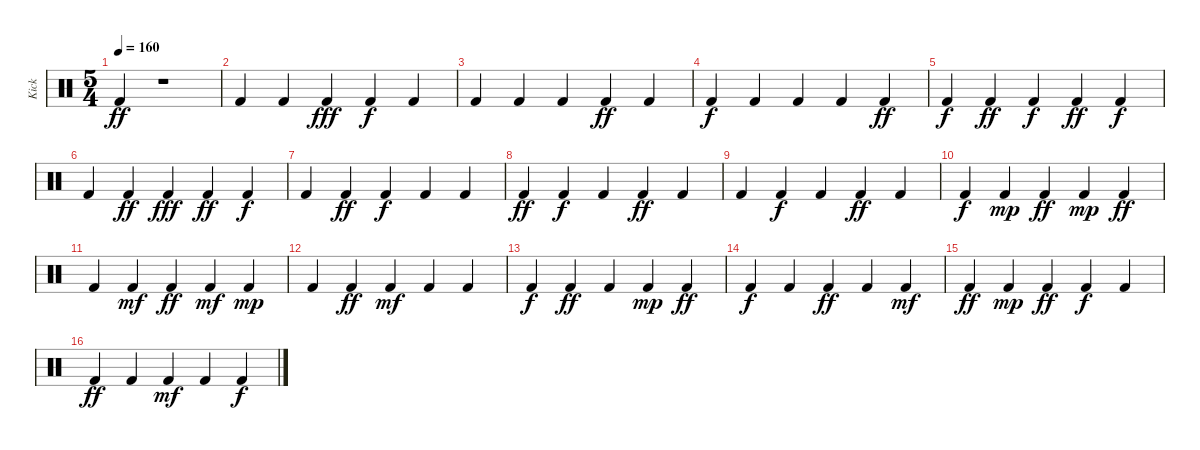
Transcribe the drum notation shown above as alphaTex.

\track ("Kick" "Kick") {instrument percussion}
\staff {score}
\articulation defaults
\ts (5 4)
\tempo 160
\clef neutral
\ks c "Kick (hit) 2".4{dy ff}
r.1 |
"Kick (hit) 2".4 "Kick (hit) 2".4 "Kick (hit) 2".4{dy fff} "Kick (hit) 2".4{dy f} "Kick (hit) 2".4 |
"Kick (hit) 2".4 "Kick (hit) 2".4 "Kick (hit) 2".4 "Kick (hit) 2".4{dy ff} "Kick (hit) 2".4 |
"Kick (hit) 2".4{dy f} "Kick (hit) 2".4 "Kick (hit) 2".4 "Kick (hit) 2".4 "Kick (hit) 2".4{dy ff} |
"Kick (hit) 2".4{dy f} "Kick (hit) 2".4{dy ff} "Kick (hit) 2".4{dy f} "Kick (hit) 2".4{dy ff} "Kick (hit) 2".4{dy f} |
"Kick (hit) 2".4 "Kick (hit) 2".4{dy ff} "Kick (hit) 2".4{dy fff} "Kick (hit) 2".4{dy ff} "Kick (hit) 2".4{dy f} |
"Kick (hit) 2".4 "Kick (hit) 2".4{dy ff} "Kick (hit) 2".4{dy f} "Kick (hit) 2".4 "Kick (hit) 2".4 |
"Kick (hit) 2".4{dy ff} "Kick (hit) 2".4{dy f} "Kick (hit) 2".4 "Kick (hit) 2".4{dy ff} "Kick (hit) 2".4 |
"Kick (hit) 2".4 "Kick (hit) 2".4{dy f} "Kick (hit) 2".4 "Kick (hit) 2".4{dy ff} "Kick (hit) 2".4 |
"Kick (hit) 2".4{dy f} "Kick (hit) 2".4{dy mp} "Kick (hit) 2".4{dy ff} "Kick (hit) 2".4{dy mp} "Kick (hit) 2".4{dy ff} |
"Kick (hit) 2".4 "Kick (hit) 2".4{dy mf} "Kick (hit) 2".4{dy ff} "Kick (hit) 2".4{dy mf} "Kick (hit) 2".4{dy mp} |
"Kick (hit) 2".4 "Kick (hit) 2".4{dy ff} "Kick (hit) 2".4{dy mf} "Kick (hit) 2".4 "Kick (hit) 2".4 |
"Kick (hit) 2".4{dy f} "Kick (hit) 2".4{dy ff} "Kick (hit) 2".4 "Kick (hit) 2".4{dy mp} "Kick (hit) 2".4{dy ff} |
"Kick (hit) 2".4{dy f} "Kick (hit) 2".4 "Kick (hit) 2".4{dy ff} "Kick (hit) 2".4 "Kick (hit) 2".4{dy mf} |
"Kick (hit) 2".4{dy ff} "Kick (hit) 2".4{dy mp} "Kick (hit) 2".4{dy ff} "Kick (hit) 2".4{dy f} "Kick (hit) 2".4 |
"Kick (hit) 2".4{dy ff} "Kick (hit) 2".4 "Kick (hit) 2".4{dy mf} "Kick (hit) 2".4 "Kick (hit) 2".4{dy f}
